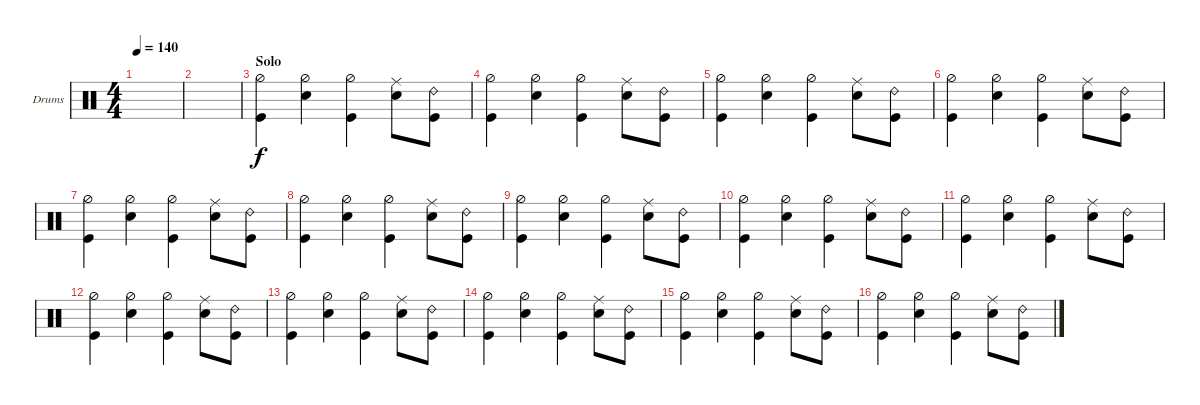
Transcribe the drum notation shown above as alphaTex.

\defaultSystemsLayout 4
\bracketExtendMode nobrackets
\firstSystemTrackNameOrientation horizontal
\otherSystemsTrackNameOrientation horizontal
\track ("Nazar" "Drums") {instrument percussion}
\staff {score}
\articulation defaults
\ts (4 4)
\tempo 140
\clef neutral
\ks c
|
|
\section ("" "Solo")
("Hi-Hat (half)" "Kick (hit)").4 ("Hi-Hat (half)" "Snare (hit) 2").4 ("Hi-Hat (half)" "Kick (hit)").4 ("Ride (middle)" "Snare (hit) 2").8 ("Ride (bell) 2" "Kick (hit)").8 |
("Hi-Hat (half)" "Kick (hit)").4 ("Hi-Hat (half)" "Snare (hit) 2").4 ("Hi-Hat (half)" "Kick (hit)").4 ("Ride (middle)" "Snare (hit) 2").8 ("Ride (bell) 2" "Kick (hit)").8 |
("Hi-Hat (half)" "Kick (hit)").4 ("Hi-Hat (half)" "Snare (hit) 2").4 ("Hi-Hat (half)" "Kick (hit)").4 ("Ride (middle)" "Snare (hit) 2").8 ("Ride (bell) 2" "Kick (hit)").8 |
("Hi-Hat (half)" "Kick (hit)").4 ("Hi-Hat (half)" "Snare (hit) 2").4 ("Hi-Hat (half)" "Kick (hit)").4 ("Ride (middle)" "Snare (hit) 2").8 ("Ride (bell) 2" "Kick (hit)").8 |
("Hi-Hat (half)" "Kick (hit)").4 ("Hi-Hat (half)" "Snare (hit) 2").4 ("Hi-Hat (half)" "Kick (hit)").4 ("Ride (middle)" "Snare (hit) 2").8 ("Ride (bell) 2" "Kick (hit)").8 |
("Hi-Hat (half)" "Kick (hit)").4 ("Hi-Hat (half)" "Snare (hit) 2").4 ("Hi-Hat (half)" "Kick (hit)").4 ("Ride (middle)" "Snare (hit) 2").8 ("Ride (bell) 2" "Kick (hit)").8 |
("Hi-Hat (half)" "Kick (hit)").4 ("Hi-Hat (half)" "Snare (hit) 2").4 ("Hi-Hat (half)" "Kick (hit)").4 ("Ride (middle)" "Snare (hit) 2").8 ("Ride (bell) 2" "Kick (hit)").8 |
("Hi-Hat (half)" "Kick (hit)").4 ("Hi-Hat (half)" "Snare (hit) 2").4 ("Hi-Hat (half)" "Kick (hit)").4 ("Ride (middle)" "Snare (hit) 2").8 ("Ride (bell) 2" "Kick (hit)").8 |
("Hi-Hat (half)" "Kick (hit)").4 ("Hi-Hat (half)" "Snare (hit) 2").4 ("Hi-Hat (half)" "Kick (hit)").4 ("Ride (middle)" "Snare (hit) 2").8 ("Ride (bell) 2" "Kick (hit)").8 |
("Hi-Hat (half)" "Kick (hit)").4 ("Hi-Hat (half)" "Snare (hit) 2").4 ("Hi-Hat (half)" "Kick (hit)").4 ("Ride (middle)" "Snare (hit) 2").8 ("Ride (bell) 2" "Kick (hit)").8 |
("Hi-Hat (half)" "Kick (hit)").4 ("Hi-Hat (half)" "Snare (hit) 2").4 ("Hi-Hat (half)" "Kick (hit)").4 ("Ride (middle)" "Snare (hit) 2").8 ("Ride (bell) 2" "Kick (hit)").8 |
("Hi-Hat (half)" "Kick (hit)").4 ("Hi-Hat (half)" "Snare (hit) 2").4 ("Hi-Hat (half)" "Kick (hit)").4 ("Ride (middle)" "Snare (hit) 2").8 ("Ride (bell) 2" "Kick (hit)").8 |
("Hi-Hat (half)" "Kick (hit)").4 ("Hi-Hat (half)" "Snare (hit) 2").4 ("Hi-Hat (half)" "Kick (hit)").4 ("Ride (middle)" "Snare (hit) 2").8 ("Ride (bell) 2" "Kick (hit)").8 |
("Hi-Hat (half)" "Kick (hit)").4 ("Hi-Hat (half)" "Snare (hit) 2").4 ("Hi-Hat (half)" "Kick (hit)").4 ("Ride (middle)" "Snare (hit) 2").8 ("Ride (bell) 2" "Kick (hit)").8
